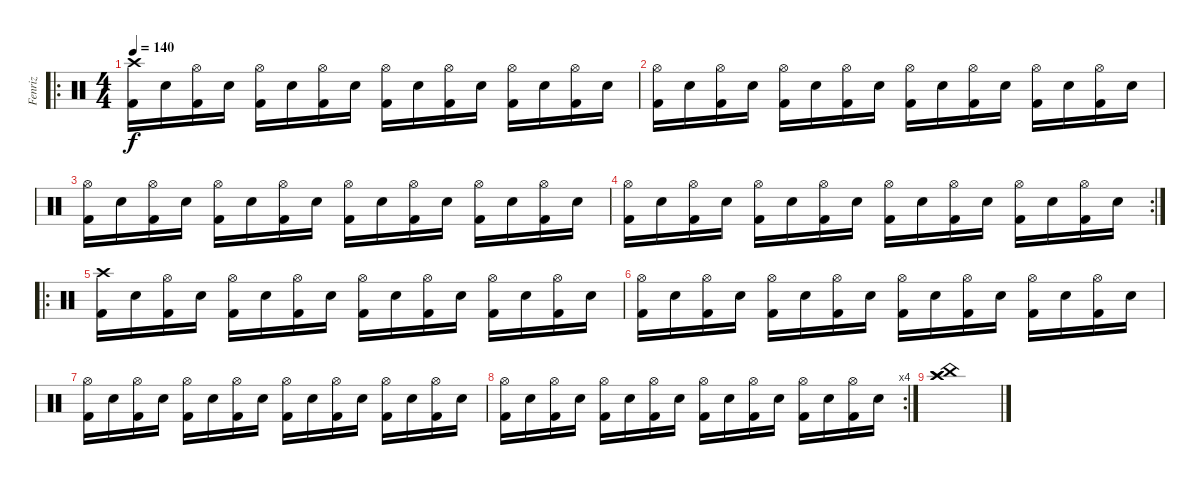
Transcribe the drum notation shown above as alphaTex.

\track ("Fenriz" "Fenriz") {instrument percussion}
\staff {score}
\articulation defaults
\ro
\ts (4 4)
\tempo 140
\clef neutral
\ks c
("Kick (hit) 2" "Crash high (hit)").16{dy f} "Electric Snare (hit)".16 ("Kick (hit) 2" "Hi-Hat (open)").16 "Electric Snare (hit)".16 ("Kick (hit) 2" "Hi-Hat (open)").16 "Electric Snare (hit)".16 ("Kick (hit) 2" "Hi-Hat (open)").16 "Electric Snare (hit)".16 ("Kick (hit) 2" "Hi-Hat (open)").16 "Electric Snare (hit)".16 ("Kick (hit) 2" "Hi-Hat (open)").16 "Electric Snare (hit)".16 ("Kick (hit) 2" "Hi-Hat (open)").16 "Electric Snare (hit)".16 ("Kick (hit) 2" "Hi-Hat (open)").16 "Electric Snare (hit)".16 |
("Kick (hit) 2" "Hi-Hat (open)").16 "Electric Snare (hit)".16 ("Kick (hit) 2" "Hi-Hat (open)").16 "Electric Snare (hit)".16 ("Kick (hit) 2" "Hi-Hat (open)").16 "Electric Snare (hit)".16 ("Kick (hit) 2" "Hi-Hat (open)").16 "Electric Snare (hit)".16 ("Kick (hit) 2" "Hi-Hat (open)").16 "Electric Snare (hit)".16 ("Kick (hit) 2" "Hi-Hat (open)").16 "Electric Snare (hit)".16 ("Kick (hit) 2" "Hi-Hat (open)").16 "Electric Snare (hit)".16 ("Kick (hit) 2" "Hi-Hat (open)").16 "Electric Snare (hit)".16 |
("Kick (hit) 2" "Hi-Hat (open)").16 "Electric Snare (hit)".16 ("Kick (hit) 2" "Hi-Hat (open)").16 "Electric Snare (hit)".16 ("Kick (hit) 2" "Hi-Hat (open)").16 "Electric Snare (hit)".16 ("Kick (hit) 2" "Hi-Hat (open)").16 "Electric Snare (hit)".16 ("Kick (hit) 2" "Hi-Hat (open)").16 "Electric Snare (hit)".16 ("Kick (hit) 2" "Hi-Hat (open)").16 "Electric Snare (hit)".16 ("Kick (hit) 2" "Hi-Hat (open)").16 "Electric Snare (hit)".16 ("Kick (hit) 2" "Hi-Hat (open)").16 "Electric Snare (hit)".16 |
\rc 2
("Kick (hit) 2" "Hi-Hat (open)").16 "Electric Snare (hit)".16 ("Kick (hit) 2" "Hi-Hat (open)").16 "Electric Snare (hit)".16 ("Kick (hit) 2" "Hi-Hat (open)").16 "Electric Snare (hit)".16 ("Kick (hit) 2" "Hi-Hat (open)").16 "Electric Snare (hit)".16 ("Kick (hit) 2" "Hi-Hat (open)").16 "Electric Snare (hit)".16 ("Kick (hit) 2" "Hi-Hat (open)").16 "Electric Snare (hit)".16 ("Kick (hit) 2" "Hi-Hat (open)").16 "Electric Snare (hit)".16 ("Kick (hit) 2" "Hi-Hat (open)").16 "Electric Snare (hit)".16 |
\ro
("Kick (hit) 2" "Crash high (hit)").16 "Electric Snare (hit)".16 ("Kick (hit) 2" "Hi-Hat (open)").16 "Electric Snare (hit)".16 ("Kick (hit) 2" "Hi-Hat (open)").16 "Electric Snare (hit)".16 ("Kick (hit) 2" "Hi-Hat (open)").16 "Electric Snare (hit)".16 ("Kick (hit) 2" "Hi-Hat (open)").16 "Electric Snare (hit)".16 ("Kick (hit) 2" "Hi-Hat (open)").16 "Electric Snare (hit)".16 ("Kick (hit) 2" "Hi-Hat (open)").16 "Electric Snare (hit)".16 ("Kick (hit) 2" "Hi-Hat (open)").16 "Electric Snare (hit)".16 |
("Kick (hit) 2" "Hi-Hat (open)").16 "Electric Snare (hit)".16 ("Kick (hit) 2" "Hi-Hat (open)").16 "Electric Snare (hit)".16 ("Kick (hit) 2" "Hi-Hat (open)").16 "Electric Snare (hit)".16 ("Kick (hit) 2" "Hi-Hat (open)").16 "Electric Snare (hit)".16 ("Kick (hit) 2" "Hi-Hat (open)").16 "Electric Snare (hit)".16 ("Kick (hit) 2" "Hi-Hat (open)").16 "Electric Snare (hit)".16 ("Kick (hit) 2" "Hi-Hat (open)").16 "Electric Snare (hit)".16 ("Kick (hit) 2" "Hi-Hat (open)").16 "Electric Snare (hit)".16 |
("Kick (hit) 2" "Hi-Hat (open)").16 "Electric Snare (hit)".16 ("Kick (hit) 2" "Hi-Hat (open)").16 "Electric Snare (hit)".16 ("Kick (hit) 2" "Hi-Hat (open)").16 "Electric Snare (hit)".16 ("Kick (hit) 2" "Hi-Hat (open)").16 "Electric Snare (hit)".16 ("Kick (hit) 2" "Hi-Hat (open)").16 "Electric Snare (hit)".16 ("Kick (hit) 2" "Hi-Hat (open)").16 "Electric Snare (hit)".16 ("Kick (hit) 2" "Hi-Hat (open)").16 "Electric Snare (hit)".16 ("Kick (hit) 2" "Hi-Hat (open)").16 "Electric Snare (hit)".16 |
\rc 4
("Kick (hit) 2" "Hi-Hat (open)").16 "Electric Snare (hit)".16 ("Kick (hit) 2" "Hi-Hat (open)").16 "Electric Snare (hit)".16 ("Kick (hit) 2" "Hi-Hat (open)").16 "Electric Snare (hit)".16 ("Kick (hit) 2" "Hi-Hat (open)").16 "Electric Snare (hit)".16 ("Kick (hit) 2" "Hi-Hat (open)").16 "Electric Snare (hit)".16 ("Kick (hit) 2" "Hi-Hat (open)").16 "Electric Snare (hit)".16 ("Kick (hit) 2" "Hi-Hat (open)").16 "Electric Snare (hit)".16 ("Kick (hit) 2" "Hi-Hat (open)").16 "Electric Snare (hit)".16 |
("Crash high (hit)" "Crash high (hit)" "China (hit)").1
